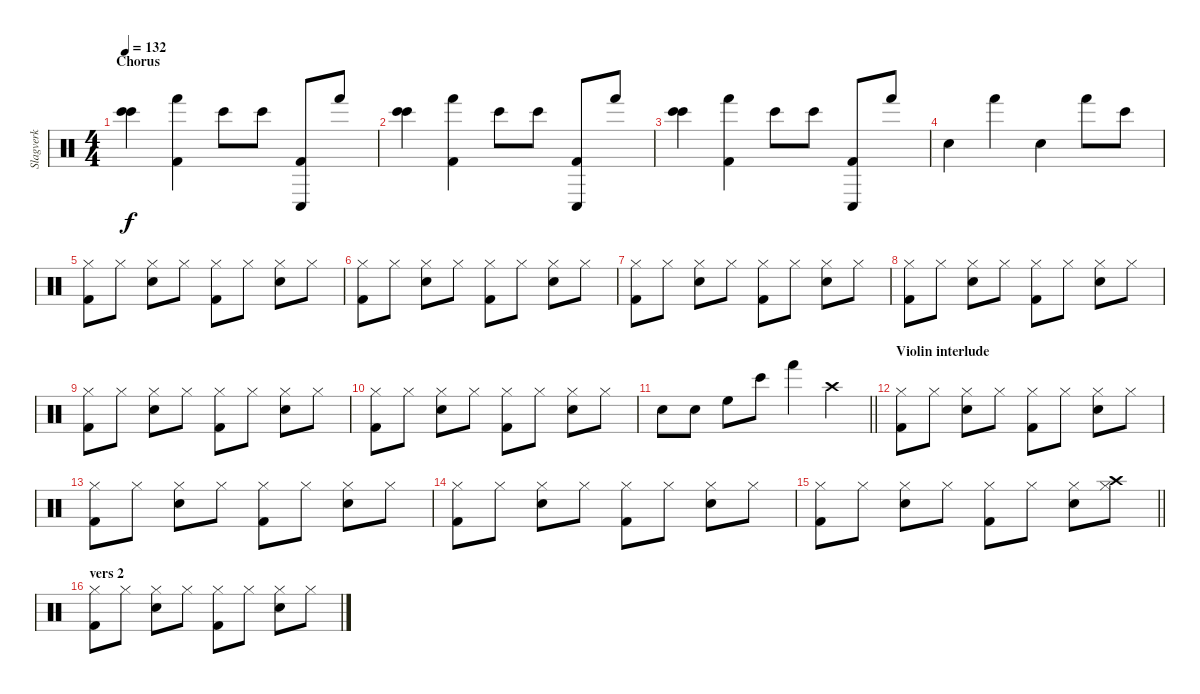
\track ("Slagverk" "Slagverk") {instrument percussion}
\staff {score}
\articulation defaults
\ts (4 4)
\section ("" "Chorus")
\tempo 132
\clef neutral
\ks c
("Bongo High (hit)" "Bongo High (hit)").4{dy f} ("Kick (hit) 2" "Hand (hit)").4 "Bongo High (hit)".8 "Bongo High (hit)".8 ("Kick (hit) 2" "Conga low (hit)").8 "Hand (hit)".8 |
("Bongo High (hit)" "Bongo High (hit)").4 ("Kick (hit) 2" "Hand (hit)").4 "Bongo High (hit)".8 "Bongo High (hit)".8 ("Kick (hit) 2" "Conga low (hit)").8 "Hand (hit)".8 |
("Bongo High (hit)" "Bongo High (hit)").4 ("Kick (hit) 2" "Hand (hit)").4 "Bongo High (hit)".8 "Bongo High (hit)".8 ("Kick (hit) 2" "Conga low (hit)").8 "Hand (hit)".8 |
"Snare (hit) 2".4 "Hand (hit)".4 "Snare (hit) 2".4 "Hand (hit)".8 "Bongo High (hit)".8 |
("Kick (hit) 2" "Hi-Hat (closed)").8 "Hi-Hat (closed)".8 ("Snare (hit) 2" "Hi-Hat (closed)").8 "Hi-Hat (closed)".8 ("Kick (hit) 2" "Hi-Hat (closed)").8 "Hi-Hat (closed)".8 ("Snare (hit) 2" "Hi-Hat (closed)").8 "Hi-Hat (closed)".8 |
("Kick (hit) 2" "Hi-Hat (closed)").8 "Hi-Hat (closed)".8 ("Snare (hit) 2" "Hi-Hat (closed)").8 "Hi-Hat (closed)".8 ("Kick (hit) 2" "Hi-Hat (closed)").8 "Hi-Hat (closed)".8 ("Snare (hit) 2" "Hi-Hat (closed)").8 "Hi-Hat (closed)".8 |
("Kick (hit) 2" "Hi-Hat (closed)").8 "Hi-Hat (closed)".8 ("Snare (hit) 2" "Hi-Hat (closed)").8 "Hi-Hat (closed)".8 ("Kick (hit) 2" "Hi-Hat (closed)").8 "Hi-Hat (closed)".8 ("Snare (hit) 2" "Hi-Hat (closed)").8 "Hi-Hat (closed)".8 |
("Kick (hit) 2" "Hi-Hat (closed)").8 "Hi-Hat (closed)".8 ("Snare (hit) 2" "Hi-Hat (closed)").8 "Hi-Hat (closed)".8 ("Kick (hit) 2" "Hi-Hat (closed)").8 "Hi-Hat (closed)".8 ("Snare (hit) 2" "Hi-Hat (closed)").8 "Hi-Hat (closed)".8 |
("Kick (hit) 2" "Hi-Hat (closed)").8 "Hi-Hat (closed)".8 ("Snare (hit) 2" "Hi-Hat (closed)").8 "Hi-Hat (closed)".8 ("Kick (hit) 2" "Hi-Hat (closed)").8 "Hi-Hat (closed)".8 ("Snare (hit) 2" "Hi-Hat (closed)").8 "Hi-Hat (closed)".8 |
("Kick (hit) 2" "Hi-Hat (closed)").8 "Hi-Hat (closed)".8 ("Snare (hit) 2" "Hi-Hat (closed)").8 "Hi-Hat (closed)".8 ("Kick (hit) 2" "Hi-Hat (closed)").8 "Hi-Hat (closed)".8 ("Snare (hit) 2" "Hi-Hat (closed)").8 "Hi-Hat (closed)".8 |
\barLineRight lightlight "Snare (hit) 2".8 "Snare (hit) 2".8 "High Floor Tom (hit)".8 "Bongo High (hit)".8 "Hand (hit)".4 "Crash high (hit)".4
|
\section ("" "Violin interlude")
("Kick (hit) 2" "Hi-Hat (closed)").8 "Hi-Hat (closed)".8 ("Snare (hit) 2" "Hi-Hat (closed)").8 "Hi-Hat (closed)".8 ("Kick (hit) 2" "Hi-Hat (closed)").8 "Hi-Hat (closed)".8 ("Snare (hit) 2" "Hi-Hat (closed)").8 "Hi-Hat (closed)".8 |
("Kick (hit) 2" "Hi-Hat (closed)").8 "Hi-Hat (closed)".8 ("Snare (hit) 2" "Hi-Hat (closed)").8 "Hi-Hat (closed)".8 ("Kick (hit) 2" "Hi-Hat (closed)").8 "Hi-Hat (closed)".8 ("Snare (hit) 2" "Hi-Hat (closed)").8 "Hi-Hat (closed)".8 |
("Kick (hit) 2" "Hi-Hat (closed)").8 "Hi-Hat (closed)".8 ("Snare (hit) 2" "Hi-Hat (closed)").8 "Hi-Hat (closed)".8 ("Kick (hit) 2" "Hi-Hat (closed)").8 "Hi-Hat (closed)".8 ("Snare (hit) 2" "Hi-Hat (closed)").8 "Hi-Hat (closed)".8 |
\barLineRight lightlight
("Kick (hit) 2" "Hi-Hat (closed)").8 "Hi-Hat (closed)".8 ("Snare (hit) 2" "Hi-Hat (closed)").8 "Hi-Hat (closed)".8 ("Kick (hit) 2" "Hi-Hat (closed)").8 "Hi-Hat (closed)".8 ("Snare (hit) 2" "Hi-Hat (closed)").8 ("Hi-Hat (closed)" "Crash high (hit)").8 |
\section ("" "vers 2")
("Kick (hit) 2" "Hi-Hat (closed)").8 "Hi-Hat (closed)".8 ("Snare (hit) 2" "Hi-Hat (closed)").8 "Hi-Hat (closed)".8 ("Kick (hit) 2" "Hi-Hat (closed)").8 "Hi-Hat (closed)".8 ("Snare (hit) 2" "Hi-Hat (closed)").8 "Hi-Hat (closed)".8
